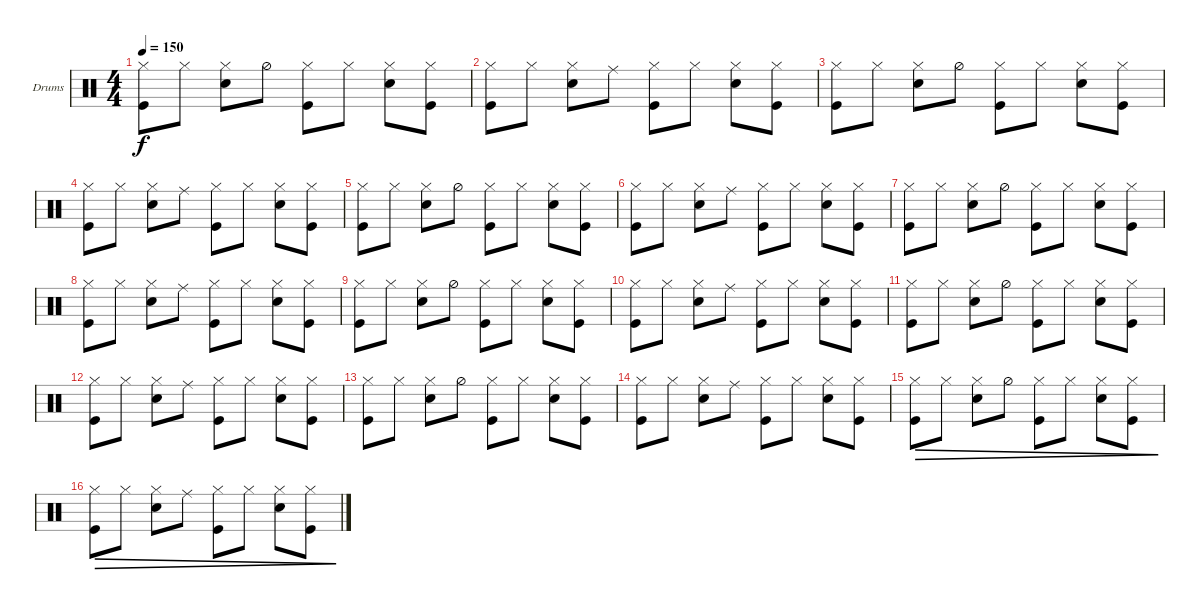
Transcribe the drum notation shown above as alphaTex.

\bracketExtendMode groupsimilarinstruments
\firstSystemTrackNameOrientation horizontal
\otherSystemsTrackNameOrientation horizontal
\track ("Drumkit" "Drums") {instrument percussion}
\staff {score}
\articulation defaults
\ts (4 4)
\tempo 150
\clef neutral
\ks c
("Hi-Hat (closed)" "Kick (hit)").8{dy f} "Hi-Hat (closed)".8 ("Hi-Hat (closed)" "Snare (hit) 2").8 "Hi-Hat (half)".8 ("Hi-Hat (closed)" "Kick (hit)").8 "Hi-Hat (closed)".8 ("Hi-Hat (closed)" "Snare (hit) 2").8 ("Hi-Hat (closed)" "Kick (hit)").8 |
("Hi-Hat (closed)" "Kick (hit)").8 "Hi-Hat (closed)".8 ("Hi-Hat (closed)" "Snare (hit) 2").8 "Ride (middle)".8 ("Hi-Hat (closed)" "Kick (hit)").8 "Hi-Hat (closed)".8 ("Hi-Hat (closed)" "Snare (hit) 2").8 ("Hi-Hat (closed)" "Kick (hit)").8 |
("Hi-Hat (closed)" "Kick (hit)").8 "Hi-Hat (closed)".8 ("Hi-Hat (closed)" "Snare (hit) 2").8 "Hi-Hat (half)".8 ("Hi-Hat (closed)" "Kick (hit)").8 "Hi-Hat (closed)".8 ("Hi-Hat (closed)" "Snare (hit) 2").8 ("Hi-Hat (closed)" "Kick (hit)").8 |
("Hi-Hat (closed)" "Kick (hit)").8 "Hi-Hat (closed)".8 ("Hi-Hat (closed)" "Snare (hit) 2").8 "Ride (middle)".8 ("Hi-Hat (closed)" "Kick (hit)").8 "Hi-Hat (closed)".8 ("Hi-Hat (closed)" "Snare (hit) 2").8 ("Hi-Hat (closed)" "Kick (hit)").8 |
("Hi-Hat (closed)" "Kick (hit)").8 "Hi-Hat (closed)".8 ("Hi-Hat (closed)" "Snare (hit) 2").8 "Hi-Hat (half)".8 ("Hi-Hat (closed)" "Kick (hit)").8 "Hi-Hat (closed)".8 ("Hi-Hat (closed)" "Snare (hit) 2").8 ("Hi-Hat (closed)" "Kick (hit)").8 |
("Hi-Hat (closed)" "Kick (hit)").8 "Hi-Hat (closed)".8 ("Hi-Hat (closed)" "Snare (hit) 2").8 "Ride (middle)".8 ("Hi-Hat (closed)" "Kick (hit)").8 "Hi-Hat (closed)".8 ("Hi-Hat (closed)" "Snare (hit) 2").8 ("Hi-Hat (closed)" "Kick (hit)").8 |
("Hi-Hat (closed)" "Kick (hit)").8 "Hi-Hat (closed)".8 ("Hi-Hat (closed)" "Snare (hit) 2").8 "Hi-Hat (half)".8 ("Hi-Hat (closed)" "Kick (hit)").8 "Hi-Hat (closed)".8 ("Hi-Hat (closed)" "Snare (hit) 2").8 ("Hi-Hat (closed)" "Kick (hit)").8 |
("Hi-Hat (closed)" "Kick (hit)").8 "Hi-Hat (closed)".8 ("Hi-Hat (closed)" "Snare (hit) 2").8 "Ride (middle)".8 ("Hi-Hat (closed)" "Kick (hit)").8 "Hi-Hat (closed)".8 ("Hi-Hat (closed)" "Snare (hit) 2").8 ("Hi-Hat (closed)" "Kick (hit)").8 |
("Hi-Hat (closed)" "Kick (hit)").8 "Hi-Hat (closed)".8 ("Hi-Hat (closed)" "Snare (hit) 2").8 "Hi-Hat (half)".8 ("Hi-Hat (closed)" "Kick (hit)").8 "Hi-Hat (closed)".8 ("Hi-Hat (closed)" "Snare (hit) 2").8 ("Hi-Hat (closed)" "Kick (hit)").8 |
("Hi-Hat (closed)" "Kick (hit)").8 "Hi-Hat (closed)".8 ("Hi-Hat (closed)" "Snare (hit) 2").8 "Ride (middle)".8 ("Hi-Hat (closed)" "Kick (hit)").8 "Hi-Hat (closed)".8 ("Hi-Hat (closed)" "Snare (hit) 2").8 ("Hi-Hat (closed)" "Kick (hit)").8 |
("Hi-Hat (closed)" "Kick (hit)").8 "Hi-Hat (closed)".8 ("Hi-Hat (closed)" "Snare (hit) 2").8 "Hi-Hat (half)".8 ("Hi-Hat (closed)" "Kick (hit)").8 "Hi-Hat (closed)".8 ("Hi-Hat (closed)" "Snare (hit) 2").8 ("Hi-Hat (closed)" "Kick (hit)").8 |
("Hi-Hat (closed)" "Kick (hit)").8 "Hi-Hat (closed)".8 ("Hi-Hat (closed)" "Snare (hit) 2").8 "Ride (middle)".8 ("Hi-Hat (closed)" "Kick (hit)").8 "Hi-Hat (closed)".8 ("Hi-Hat (closed)" "Snare (hit) 2").8 ("Hi-Hat (closed)" "Kick (hit)").8 |
("Hi-Hat (closed)" "Kick (hit)").8 "Hi-Hat (closed)".8 ("Hi-Hat (closed)" "Snare (hit) 2").8 "Hi-Hat (half)".8 ("Hi-Hat (closed)" "Kick (hit)").8 "Hi-Hat (closed)".8 ("Hi-Hat (closed)" "Snare (hit) 2").8 ("Hi-Hat (closed)" "Kick (hit)").8 |
("Hi-Hat (closed)" "Kick (hit)").8 "Hi-Hat (closed)".8 ("Hi-Hat (closed)" "Snare (hit) 2").8 "Ride (middle)".8 ("Hi-Hat (closed)" "Kick (hit)").8 "Hi-Hat (closed)".8 ("Hi-Hat (closed)" "Snare (hit) 2").8 ("Hi-Hat (closed)" "Kick (hit)").8 |
("Hi-Hat (closed)" "Kick (hit)").8{dec} "Hi-Hat (closed)".8{dec} ("Hi-Hat (closed)" "Snare (hit) 2").8{dec} "Hi-Hat (half)".8{dec} ("Hi-Hat (closed)" "Kick (hit)").8{dec} "Hi-Hat (closed)".8{dec} ("Hi-Hat (closed)" "Snare (hit) 2").8{dec} ("Hi-Hat (closed)" "Kick (hit)").8{dec} |
("Hi-Hat (closed)" "Kick (hit)").8{dec} "Hi-Hat (closed)".8{dec} ("Hi-Hat (closed)" "Snare (hit) 2").8{dec} "Ride (middle)".8{dec} ("Hi-Hat (closed)" "Kick (hit)").8{dec} "Hi-Hat (closed)".8{dec} ("Hi-Hat (closed)" "Snare (hit) 2").8{dec} ("Hi-Hat (closed)" "Kick (hit)").8{dec}
